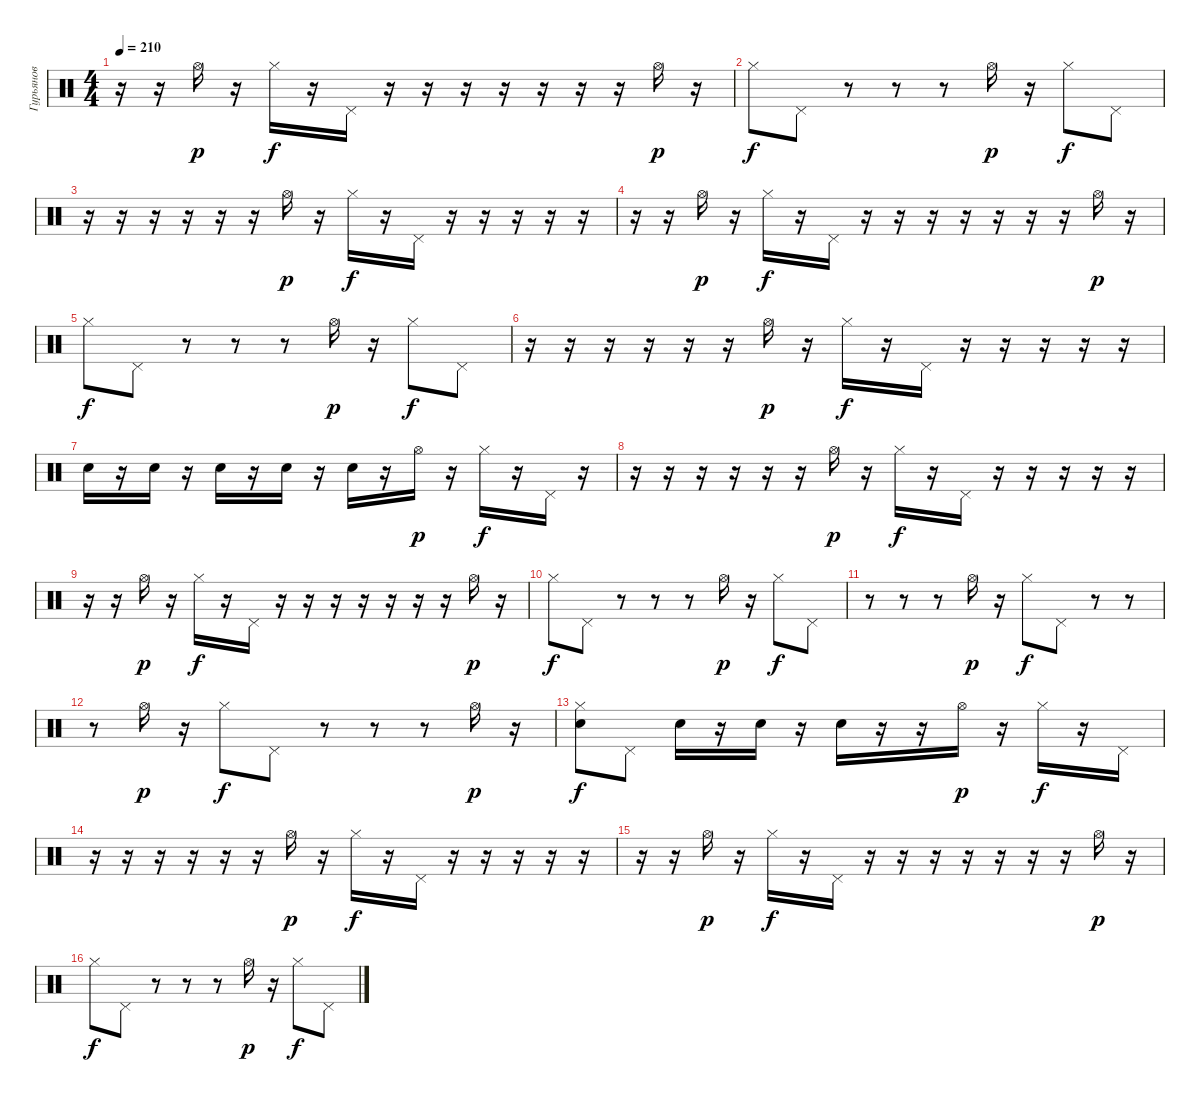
\track ("Гурьянов" "Гурьянов") {instrument percussion}
\staff {score}
\articulation defaults
\ts (4 4)
\tempo 210
\clef neutral
\ks c
r.16{dy f} r.16 "Hi-Hat (open)".16{dy p} r.16 "Hi-Hat (closed)".16{dy f} r.16 "Pedal Hi-Hat (hit)".16 r.16 r.16 r.16 r.16 r.16 r.16 r.16 "Hi-Hat (open)".16{dy p} r.16 |
"Hi-Hat (closed)".8{dy f} "Pedal Hi-Hat (hit)".8 r.8 r.8 r.8 "Hi-Hat (open)".16{dy p} r.16 "Hi-Hat (closed)".8{dy f} "Pedal Hi-Hat (hit)".8 |
r.16 r.16 r.16 r.16 r.16 r.16 "Hi-Hat (open)".16{dy p} r.16 "Hi-Hat (closed)".16{dy f} r.16 "Pedal Hi-Hat (hit)".16 r.16 r.16 r.16 r.16 r.16 |
r.16 r.16 "Hi-Hat (open)".16{dy p} r.16 "Hi-Hat (closed)".16{dy f} r.16 "Pedal Hi-Hat (hit)".16 r.16 r.16 r.16 r.16 r.16 r.16 r.16 "Hi-Hat (open)".16{dy p} r.16 |
"Hi-Hat (closed)".8{dy f} "Pedal Hi-Hat (hit)".8 r.8 r.8 r.8 "Hi-Hat (open)".16{dy p} r.16 "Hi-Hat (closed)".8{dy f} "Pedal Hi-Hat (hit)".8 |
r.16 r.16 r.16 r.16 r.16 r.16 "Hi-Hat (open)".16{dy p} r.16 "Hi-Hat (closed)".16{dy f} r.16 "Pedal Hi-Hat (hit)".16 r.16 r.16 r.16 r.16 r.16 |
"Snare (hit) 2".16 r.16 "Snare (hit) 2".16 r.16 "Snare (hit) 2".16 r.16 "Snare (hit) 2".16 r.16 "Snare (hit) 2".16 r.16 "Hi-Hat (open)".16{dy p} r.16 "Hi-Hat (closed)".16{dy f} r.16 "Pedal Hi-Hat (hit)".16 r.16 |
r.16 r.16 r.16 r.16 r.16 r.16 "Hi-Hat (open)".16{dy p} r.16 "Hi-Hat (closed)".16{dy f} r.16 "Pedal Hi-Hat (hit)".16 r.16 r.16 r.16 r.16 r.16 |
r.16 r.16 "Hi-Hat (open)".16{dy p} r.16 "Hi-Hat (closed)".16{dy f} r.16 "Pedal Hi-Hat (hit)".16 r.16 r.16 r.16 r.16 r.16 r.16 r.16 "Hi-Hat (open)".16{dy p} r.16 |
"Hi-Hat (closed)".8{dy f} "Pedal Hi-Hat (hit)".8 r.8 r.8 r.8 "Hi-Hat (open)".16{dy p} r.16 "Hi-Hat (closed)".8{dy f} "Pedal Hi-Hat (hit)".8 |
r.8 r.8 r.8 "Hi-Hat (open)".16{dy p} r.16 "Hi-Hat (closed)".8{dy f} "Pedal Hi-Hat (hit)".8 r.8 r.8 |
r.8 "Hi-Hat (open)".16{dy p} r.16 "Hi-Hat (closed)".8{dy f} "Pedal Hi-Hat (hit)".8 r.8 r.8 r.8 "Hi-Hat (open)".16{dy p} r.16 |
("Snare (hit) 2" "Hi-Hat (closed)").8{dy f} "Pedal Hi-Hat (hit)".8 "Snare (hit) 2".16 r.16 "Snare (hit) 2".16 r.16 "Snare (hit) 2".16 r.16 r.16 "Hi-Hat (open)".16{dy p} r.16 "Hi-Hat (closed)".16{dy f} r.16 "Pedal Hi-Hat (hit)".16 |
r.16 r.16 r.16 r.16 r.16 r.16 "Hi-Hat (open)".16{dy p} r.16 "Hi-Hat (closed)".16{dy f} r.16 "Pedal Hi-Hat (hit)".16 r.16 r.16 r.16 r.16 r.16 |
r.16 r.16 "Hi-Hat (open)".16{dy p} r.16 "Hi-Hat (closed)".16{dy f} r.16 "Pedal Hi-Hat (hit)".16 r.16 r.16 r.16 r.16 r.16 r.16 r.16 "Hi-Hat (open)".16{dy p} r.16 |
"Hi-Hat (closed)".8{dy f} "Pedal Hi-Hat (hit)".8 r.8 r.8 r.8 "Hi-Hat (open)".16{dy p} r.16 "Hi-Hat (closed)".8{dy f} "Pedal Hi-Hat (hit)".8
